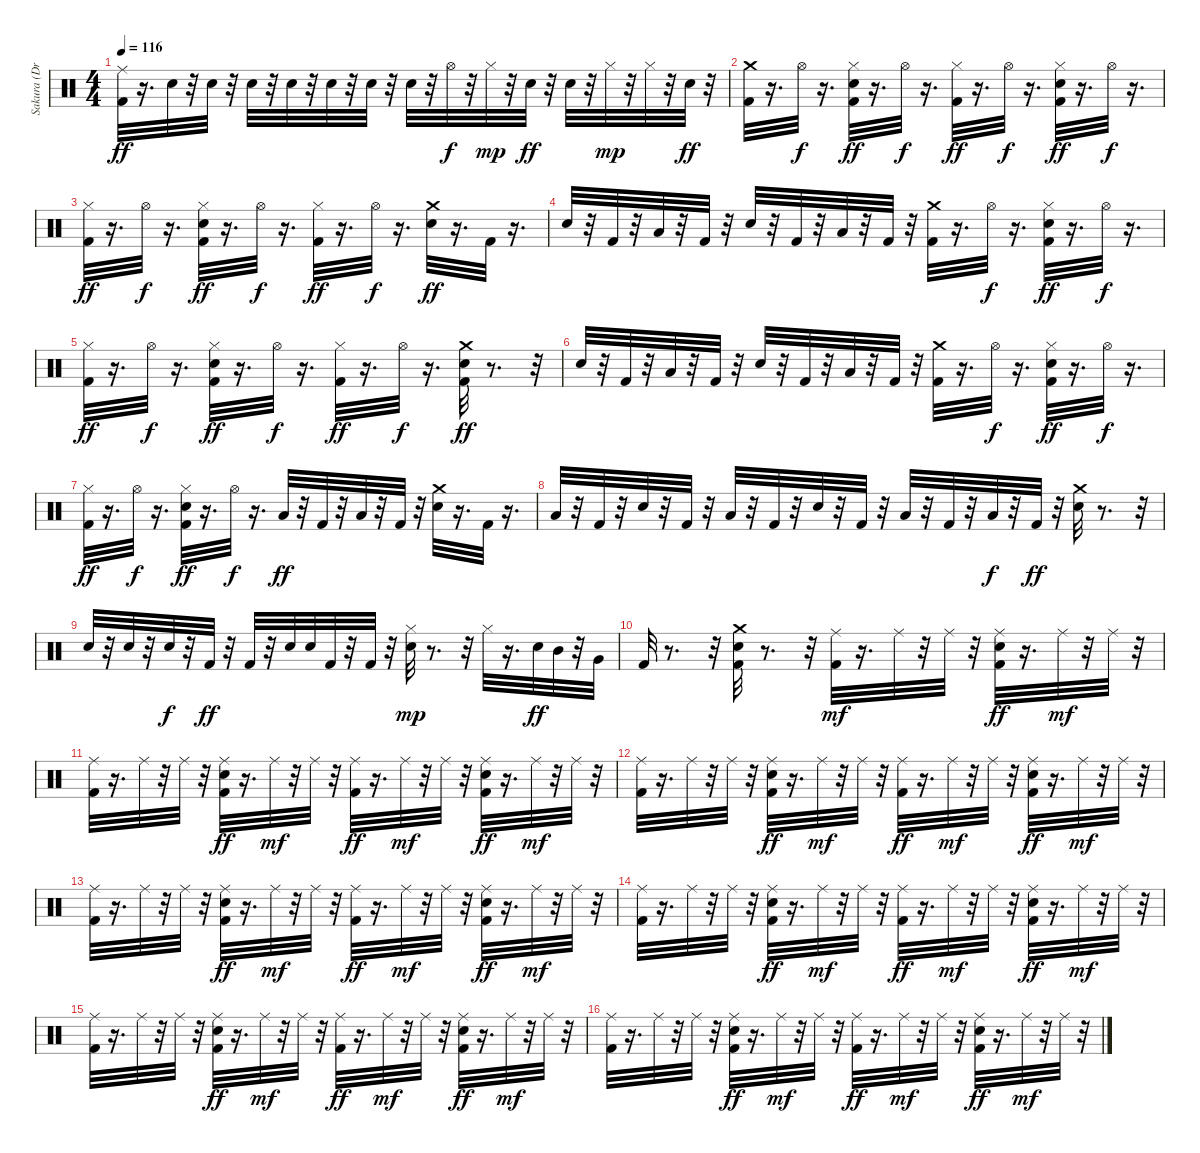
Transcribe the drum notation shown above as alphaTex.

\track ("Sakura (Drums)" "Sakura (Dr") {instrument percussion}
\staff {score}
\articulation defaults
\ts (4 4)
\tempo 116
\clef neutral
\ks c
("Ride (middle)" "Kick (hit) 2").32{dy ff} r.16{d} "Electric Snare (hit)".32 r.32 "Electric Snare (hit)".32 r.32 "Electric Snare (hit)".32 r.32 "Electric Snare (hit)".32 r.32 "Electric Snare (hit)".32 r.32 "Electric Snare (hit)".32 r.32 "Electric Snare (hit)".32 r.32 "Hi-Hat (open)".32{dy f} r.32 "Hi-Hat (closed)".32{dy mp} r.32 "Electric Snare (hit)".32{dy ff} r.32 "Electric Snare (hit)".32 r.32 "Hi-Hat (closed)".32{dy mp} r.32 "Hi-Hat (closed)".32 r.32 "Electric Snare (hit)".32{dy ff} r.32 |
("Crash medium (hit)" "Kick (hit) 2").32 r.16{d} "Hi-Hat (open)".32{dy f} r.16{d} ("Hi-Hat (closed)" "Electric Snare (hit)" "Kick (hit) 2").32{dy ff} r.16{d} "Hi-Hat (open)".32{dy f} r.16{d} ("Hi-Hat (closed)" "Kick (hit) 2").32{dy ff} r.16{d} "Hi-Hat (open)".32{dy f} r.16{d} ("Hi-Hat (closed)" "Electric Snare (hit)" "Kick (hit) 2").32{dy ff} r.16{d} "Hi-Hat (open)".32{dy f} r.16{d} |
("Hi-Hat (closed)" "Kick (hit) 2").32{dy ff} r.16{d} "Hi-Hat (open)".32{dy f} r.16{d} ("Hi-Hat (closed)" "Electric Snare (hit)" "Kick (hit) 2").32{dy ff} r.16{d} "Hi-Hat (open)".32{dy f} r.16{d} ("Hi-Hat (closed)" "Kick (hit) 2").32{dy ff} r.16{d} "Hi-Hat (open)".32{dy f} r.16{d} ("Crash medium (hit)" "Electric Snare (hit)").32{dy ff} r.16{d} "Kick (hit) 2".32 r.16{d} |
"Electric Snare (hit)".32 r.32 "Kick (hit) 2".32 r.32 "Low Floor Tom (hit)".32 r.32 "Kick (hit) 2".32 r.32 "Electric Snare (hit)".32 r.32 "Kick (hit) 2".32 r.32 "Low Floor Tom (hit)".32 r.32 "Kick (hit) 2".32 r.32 ("Crash medium (hit)" "Kick (hit) 2").32 r.16{d} "Hi-Hat (open)".32{dy f} r.16{d} ("Hi-Hat (closed)" "Electric Snare (hit)" "Kick (hit) 2").32{dy ff} r.16{d} "Hi-Hat (open)".32{dy f} r.16{d} |
("Hi-Hat (closed)" "Kick (hit) 2").32{dy ff} r.16{d} "Hi-Hat (open)".32{dy f} r.16{d} ("Hi-Hat (closed)" "Electric Snare (hit)" "Kick (hit) 2").32{dy ff} r.16{d} "Hi-Hat (open)".32{dy f} r.16{d} ("Hi-Hat (closed)" "Kick (hit) 2").32{dy ff} r.16{d} "Hi-Hat (open)".32{dy f} r.16{d} ("Crash medium (hit)" "Electric Snare (hit)" "Kick (hit) 2").32{dy ff} r.8{d} r.32 |
"Electric Snare (hit)".32 r.32 "Kick (hit) 2".32 r.32 "Low Floor Tom (hit)".32 r.32 "Kick (hit) 2".32 r.32 "Electric Snare (hit)".32 r.32 "Kick (hit) 2".32 r.32 "Low Floor Tom (hit)".32 r.32 "Kick (hit) 2".32 r.32 ("Crash medium (hit)" "Kick (hit) 2").32 r.16{d} "Hi-Hat (open)".32{dy f} r.16{d} ("Hi-Hat (closed)" "Electric Snare (hit)" "Kick (hit) 2").32{dy ff} r.16{d} "Hi-Hat (open)".32{dy f} r.16{d} |
("Hi-Hat (closed)" "Kick (hit) 2").32{dy ff} r.16{d} "Hi-Hat (open)".32{dy f} r.16{d} ("Hi-Hat (closed)" "Electric Snare (hit)" "Kick (hit) 2").32{dy ff} r.16{d} "Hi-Hat (open)".32{dy f} r.16{d} "Low Floor Tom (hit)".32{dy ff} r.32 "Kick (hit) 2".32 r.32 "Low Floor Tom (hit)".32 r.32 "Kick (hit) 2".32 r.32 ("Crash medium (hit)" "Electric Snare (hit)").32 r.16{d} "Kick (hit) 2".32 r.16{d} |
"Low Floor Tom (hit)".32 r.32 "Kick (hit) 2".32 r.32 "Electric Snare (hit)".32 r.32 "Kick (hit) 2".32 r.32 "Low Floor Tom (hit)".32 r.32 "Kick (hit) 2".32 r.32 "Electric Snare (hit)".32 r.32 "Kick (hit) 2".32 r.32 "Low Floor Tom (hit)".32 r.32 "Kick (hit) 2".32 r.32 "Low Floor Tom (hit)".32{dy f} r.32 "Kick (hit) 2".32{dy ff} r.32 ("Crash medium (hit)" "Electric Snare (hit)").32 r.8{d} r.32 |
"Electric Snare (hit)".32 r.32 "Electric Snare (hit)".32 r.32 "Electric Snare (hit)".32{dy f} r.32 "Kick (hit) 2".32{dy ff} r.32 "Kick (hit) 2".32 r.32 "Electric Snare (hit)".32 "Electric Snare (hit)".32 "Kick (hit) 2".32 r.32 "Kick (hit) 2".32 r.32 ("Electric Snare (hit)" "Hi-Hat (closed)").32{dy mp} r.8{d} r.32 "Hi-Hat (closed)".32 r.16{d} "Electric Snare (hit)".32{dy ff} "Mid Tom (hit)".32 r.32 "Very Low Tom (hit)".32 |
"Kick (hit) 2".32 r.8{d} r.32 ("Kick (hit) 2" "Crash medium (hit)" "Electric Snare (hit)").32 r.8{d} r.32 ("Kick (hit) 2" "Ride (middle)").32{dy mf} r.16{d} "Ride (middle)".32 r.32 "Ride (middle)".32 r.32 ("Kick (hit) 2" "Ride (middle)" "Electric Snare (hit)").32{dy ff} r.16{d} "Ride (middle)".32{dy mf} r.32 "Ride (middle)".32 r.32 |
("Kick (hit) 2" "Ride (middle)").32 r.16{d} "Ride (middle)".32 r.32 "Ride (middle)".32 r.32 ("Ride (middle)" "Electric Snare (hit)" "Kick (hit) 2").32{dy ff} r.16{d} "Ride (middle)".32{dy mf} r.32 "Ride (middle)".32 r.32 ("Ride (middle)" "Kick (hit) 2").32{dy ff} r.16{d} "Ride (middle)".32{dy mf} r.32 "Ride (middle)".32 r.32 ("Ride (middle)" "Electric Snare (hit)" "Kick (hit) 2").32{dy ff} r.16{d} "Ride (middle)".32{dy mf} r.32 "Ride (middle)".32 r.32 |
("Kick (hit) 2" "Ride (middle)").32 r.16{d} "Ride (middle)".32 r.32 "Ride (middle)".32 r.32 ("Ride (middle)" "Electric Snare (hit)" "Kick (hit) 2").32{dy ff} r.16{d} "Ride (middle)".32{dy mf} r.32 "Ride (middle)".32 r.32 ("Ride (middle)" "Kick (hit) 2").32{dy ff} r.16{d} "Ride (middle)".32{dy mf} r.32 "Ride (middle)".32 r.32 ("Ride (middle)" "Electric Snare (hit)" "Kick (hit) 2").32{dy ff} r.16{d} "Ride (middle)".32{dy mf} r.32 "Ride (middle)".32 r.32 |
("Kick (hit) 2" "Ride (middle)").32 r.16{d} "Ride (middle)".32 r.32 "Ride (middle)".32 r.32 ("Ride (middle)" "Electric Snare (hit)" "Kick (hit) 2").32{dy ff} r.16{d} "Ride (middle)".32{dy mf} r.32 "Ride (middle)".32 r.32 ("Ride (middle)" "Kick (hit) 2").32{dy ff} r.16{d} "Ride (middle)".32{dy mf} r.32 "Ride (middle)".32 r.32 ("Ride (middle)" "Electric Snare (hit)" "Kick (hit) 2").32{dy ff} r.16{d} "Ride (middle)".32{dy mf} r.32 "Ride (middle)".32 r.32 |
("Kick (hit) 2" "Ride (middle)").32 r.16{d} "Ride (middle)".32 r.32 "Ride (middle)".32 r.32 ("Ride (middle)" "Electric Snare (hit)" "Kick (hit) 2").32{dy ff} r.16{d} "Ride (middle)".32{dy mf} r.32 "Ride (middle)".32 r.32 ("Ride (middle)" "Kick (hit) 2").32{dy ff} r.16{d} "Ride (middle)".32{dy mf} r.32 "Ride (middle)".32 r.32 ("Ride (middle)" "Electric Snare (hit)" "Kick (hit) 2").32{dy ff} r.16{d} "Ride (middle)".32{dy mf} r.32 "Ride (middle)".32 r.32 |
("Kick (hit) 2" "Ride (middle)").32 r.16{d} "Ride (middle)".32 r.32 "Ride (middle)".32 r.32 ("Ride (middle)" "Electric Snare (hit)" "Kick (hit) 2").32{dy ff} r.16{d} "Ride (middle)".32{dy mf} r.32 "Ride (middle)".32 r.32 ("Ride (middle)" "Kick (hit) 2").32{dy ff} r.16{d} "Ride (middle)".32{dy mf} r.32 "Ride (middle)".32 r.32 ("Ride (middle)" "Electric Snare (hit)" "Kick (hit) 2").32{dy ff} r.16{d} "Ride (middle)".32{dy mf} r.32 "Ride (middle)".32 r.32 |
("Kick (hit) 2" "Ride (middle)").32 r.16{d} "Ride (middle)".32 r.32 "Ride (middle)".32 r.32 ("Ride (middle)" "Electric Snare (hit)" "Kick (hit) 2").32{dy ff} r.16{d} "Ride (middle)".32{dy mf} r.32 "Ride (middle)".32 r.32 ("Ride (middle)" "Kick (hit) 2").32{dy ff} r.16{d} "Ride (middle)".32{dy mf} r.32 "Ride (middle)".32 r.32 ("Ride (middle)" "Electric Snare (hit)" "Kick (hit) 2").32{dy ff} r.16{d} "Ride (middle)".32{dy mf} r.32 "Ride (middle)".32 r.32
